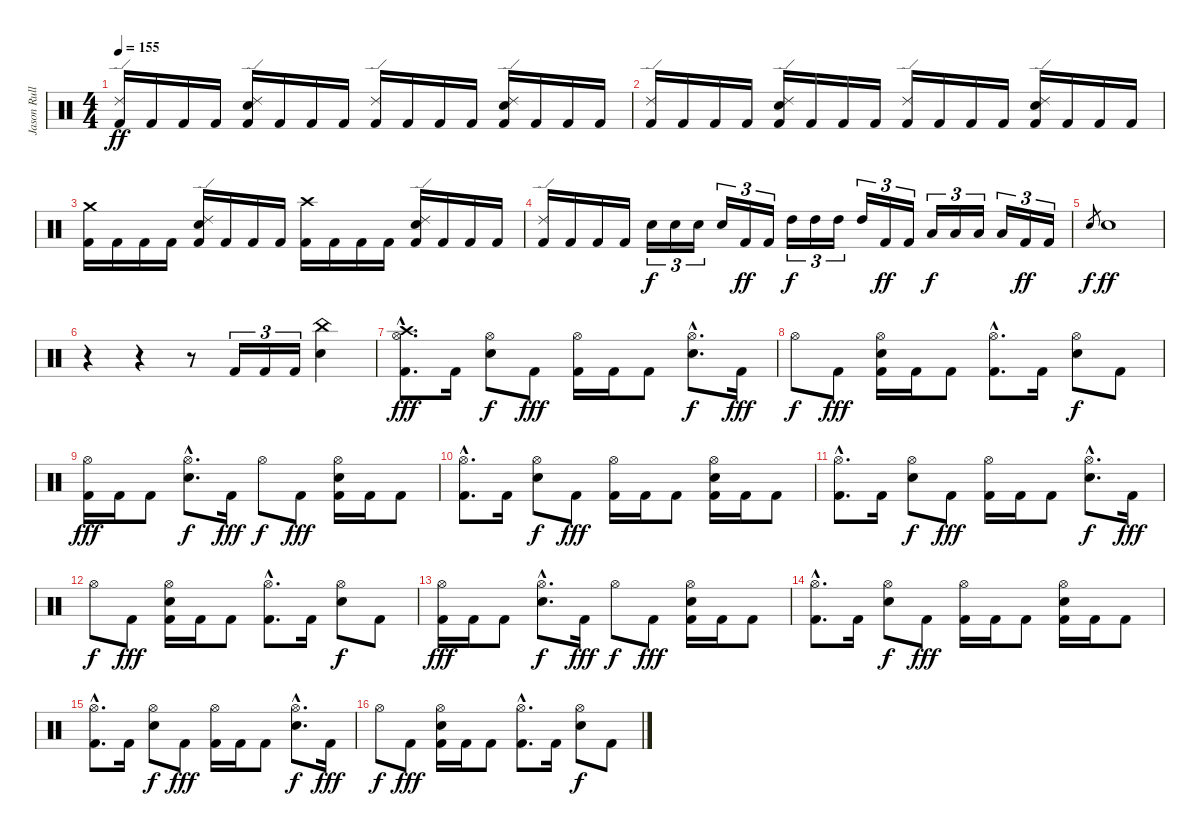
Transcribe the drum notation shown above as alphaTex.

\track ("Jason Rullo" "Jason Rull") {instrument percussion}
\staff {score}
\articulation defaults
\ts (4 4)
\tempo 155
\clef neutral
\ks c
("Ride (edge) 2" "Kick (hit) 2").16{dy ff} "Kick (hit) 2".16 "Kick (hit) 2".16 "Kick (hit) 2".16 ("Ride (edge) 2" "Electric Snare (hit)" "Kick (hit) 2").16 "Kick (hit) 2".16 "Kick (hit) 2".16 "Kick (hit) 2".16 ("Ride (edge) 2" "Kick (hit) 2").16 "Kick (hit) 2".16 "Kick (hit) 2".16 "Kick (hit) 2".16 ("Ride (edge) 2" "Electric Snare (hit)" "Kick (hit) 2").16 "Kick (hit) 2".16 "Kick (hit) 2".16 "Kick (hit) 2".16 |
("Ride (edge) 2" "Kick (hit) 2").16 "Kick (hit) 2".16 "Kick (hit) 2".16 "Kick (hit) 2".16 ("Ride (edge) 2" "Electric Snare (hit)" "Kick (hit) 2").16 "Kick (hit) 2".16 "Kick (hit) 2".16 "Kick (hit) 2".16 ("Ride (edge) 2" "Kick (hit) 2").16 "Kick (hit) 2".16 "Kick (hit) 2".16 "Kick (hit) 2".16 ("Ride (edge) 2" "Electric Snare (hit)" "Kick (hit) 2").16 "Kick (hit) 2".16 "Kick (hit) 2".16 "Kick (hit) 2".16 |
("Crash medium (hit)" "Kick (hit) 2").16 "Kick (hit) 2".16 "Kick (hit) 2".16 "Kick (hit) 2".16 ("Ride (edge) 2" "Electric Snare (hit)" "Kick (hit) 2").16 "Kick (hit) 2".16 "Kick (hit) 2".16 "Kick (hit) 2".16 ("Crash high (hit)" "Kick (hit) 2").16 "Kick (hit) 2".16 "Kick (hit) 2".16 "Kick (hit) 2".16 ("Ride (edge) 2" "Electric Snare (hit)" "Kick (hit) 2").16 "Kick (hit) 2".16 "Kick (hit) 2".16 "Kick (hit) 2".16 |
("Ride (edge) 2" "Kick (hit) 2").16 "Kick (hit) 2".16 "Kick (hit) 2".16 "Kick (hit) 2".16 "Electric Snare (hit)".16{tu (3 2) dy f} "Electric Snare (hit)".16{tu (3 2)} "Electric Snare (hit)".16{tu (3 2)} "Electric Snare (hit)".16{tu (3 2)} "Kick (hit) 2".16{tu (3 2) dy ff} "Kick (hit) 2".16{tu (3 2)} "High Tom (hit)".16{tu (3 2) dy f} "High Tom (hit)".16{tu (3 2)} "High Tom (hit)".16{tu (3 2)} "High Tom (hit)".16{tu (3 2)} "Kick (hit) 2".16{tu (3 2) dy ff} "Kick (hit) 2".16{tu (3 2)} "Low Tom (hit)".16{tu (3 2) dy f} "Low Tom (hit)".16{tu (3 2)} "Low Tom (hit)".16{tu (3 2)} "Low Tom (hit)".16{tu (3 2)} "Kick (hit) 2".16{tu (3 2) dy ff} "Kick (hit) 2".16{tu (3 2)} |
"Electric Snare (hit)".8{gr dy f} "Electric Snare (hit)".1{dy ff} |
r.4 r.4 r.8 "Kick (hit) 2".16{tu (3 2)} "Kick (hit) 2".16{tu (3 2)} "Kick (hit) 2".16{tu (3 2)} ("China (hit)" "Electric Snare (hit)").4 |
("Crash high (hit)"{hac} "Hi-Hat (open)"{hac} "Kick (hit) 2"{hac}).8{d dy fff} "Kick (hit) 2".16 ("Hi-Hat (open)" "Electric Snare (hit)").8{dy f} "Kick (hit) 2".8{dy fff} ("Hi-Hat (open)" "Kick (hit) 2").16 "Kick (hit) 2".16 "Kick (hit) 2".8 ("Hi-Hat (open)"{hac} "Electric Snare (hit)"{hac}).8{d dy f} "Kick (hit) 2".16{dy fff} |
"Hi-Hat (open)".8{dy f} "Kick (hit) 2".8{dy fff} ("Hi-Hat (open)" "Electric Snare (hit)" "Kick (hit) 2").16 "Kick (hit) 2".16 "Kick (hit) 2".8 ("Hi-Hat (open)"{hac} "Kick (hit) 2"{hac}).8{d} "Kick (hit) 2".16 ("Hi-Hat (open)" "Electric Snare (hit)").8{dy f} "Kick (hit) 2".8 |
("Hi-Hat (open)" "Kick (hit) 2").16{dy fff} "Kick (hit) 2".16 "Kick (hit) 2".8 ("Hi-Hat (open)"{hac} "Electric Snare (hit)"{hac}).8{d dy f} "Kick (hit) 2".16{dy fff} "Hi-Hat (open)".8{dy f} "Kick (hit) 2".8{dy fff} ("Hi-Hat (open)" "Electric Snare (hit)" "Kick (hit) 2").16 "Kick (hit) 2".16 "Kick (hit) 2".8 |
("Hi-Hat (open)"{hac} "Kick (hit) 2"{hac}).8{d} "Kick (hit) 2".16 ("Hi-Hat (open)" "Electric Snare (hit)").8{dy f} "Kick (hit) 2".8{dy fff} ("Hi-Hat (open)" "Kick (hit) 2").16 "Kick (hit) 2".16 "Kick (hit) 2".8 ("Hi-Hat (open)" "Electric Snare (hit)" "Kick (hit) 2").16 "Kick (hit) 2".16 "Kick (hit) 2".8 |
("Hi-Hat (open)"{hac} "Kick (hit) 2"{hac}).8{d} "Kick (hit) 2".16 ("Hi-Hat (open)" "Electric Snare (hit)").8{dy f} "Kick (hit) 2".8{dy fff} ("Hi-Hat (open)" "Kick (hit) 2").16 "Kick (hit) 2".16 "Kick (hit) 2".8 ("Hi-Hat (open)"{hac} "Electric Snare (hit)"{hac}).8{d dy f} "Kick (hit) 2".16{dy fff} |
"Hi-Hat (open)".8{dy f} "Kick (hit) 2".8{dy fff} ("Hi-Hat (open)" "Electric Snare (hit)" "Kick (hit) 2").16 "Kick (hit) 2".16 "Kick (hit) 2".8 ("Hi-Hat (open)"{hac} "Kick (hit) 2"{hac}).8{d} "Kick (hit) 2".16 ("Hi-Hat (open)" "Electric Snare (hit)").8{dy f} "Kick (hit) 2".8 |
("Hi-Hat (open)" "Kick (hit) 2").16{dy fff} "Kick (hit) 2".16 "Kick (hit) 2".8 ("Hi-Hat (open)"{hac} "Electric Snare (hit)"{hac}).8{d dy f} "Kick (hit) 2".16{dy fff} "Hi-Hat (open)".8{dy f} "Kick (hit) 2".8{dy fff} ("Hi-Hat (open)" "Electric Snare (hit)" "Kick (hit) 2").16 "Kick (hit) 2".16 "Kick (hit) 2".8 |
("Hi-Hat (open)"{hac} "Kick (hit) 2"{hac}).8{d} "Kick (hit) 2".16 ("Hi-Hat (open)" "Electric Snare (hit)").8{dy f} "Kick (hit) 2".8{dy fff} ("Hi-Hat (open)" "Kick (hit) 2").16 "Kick (hit) 2".16 "Kick (hit) 2".8 ("Hi-Hat (open)" "Electric Snare (hit)" "Kick (hit) 2").16 "Kick (hit) 2".16 "Kick (hit) 2".8 |
("Hi-Hat (open)"{hac} "Kick (hit) 2"{hac}).8{d} "Kick (hit) 2".16 ("Hi-Hat (open)" "Electric Snare (hit)").8{dy f} "Kick (hit) 2".8{dy fff} ("Hi-Hat (open)" "Kick (hit) 2").16 "Kick (hit) 2".16 "Kick (hit) 2".8 ("Hi-Hat (open)"{hac} "Electric Snare (hit)"{hac}).8{d dy f} "Kick (hit) 2".16{dy fff} |
"Hi-Hat (open)".8{dy f} "Kick (hit) 2".8{dy fff} ("Hi-Hat (open)" "Electric Snare (hit)" "Kick (hit) 2").16 "Kick (hit) 2".16 "Kick (hit) 2".8 ("Hi-Hat (open)"{hac} "Kick (hit) 2"{hac}).8{d} "Kick (hit) 2".16 ("Hi-Hat (open)" "Electric Snare (hit)").8{dy f} "Kick (hit) 2".8
